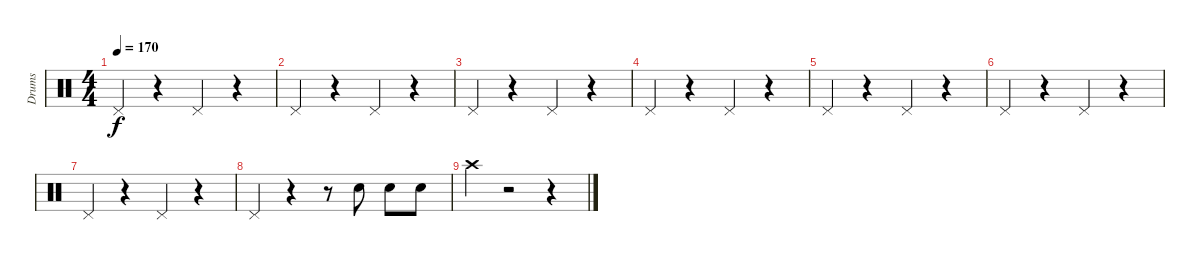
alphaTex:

\track ("Drums" "Drums") {instrument percussion}
\staff {score}
\articulation defaults
\ts (4 4)
\tempo 170
\clef neutral
\ks c "Pedal Hi-Hat (hit)".4{dy f}
r.4 "Pedal Hi-Hat (hit)".4 r.4 |
"Pedal Hi-Hat (hit)".4 r.4 "Pedal Hi-Hat (hit)".4 r.4 |
"Pedal Hi-Hat (hit)".4 r.4 "Pedal Hi-Hat (hit)".4 r.4 |
"Pedal Hi-Hat (hit)".4 r.4 "Pedal Hi-Hat (hit)".4 r.4 |
"Pedal Hi-Hat (hit)".4 r.4 "Pedal Hi-Hat (hit)".4 r.4 |
"Pedal Hi-Hat (hit)".4 r.4 "Pedal Hi-Hat (hit)".4 r.4 |
"Pedal Hi-Hat (hit)".4 r.4 "Pedal Hi-Hat (hit)".4 r.4 |
"Pedal Hi-Hat (hit)".4 r.4 r.8 "Snare (hit) 2".8 "Snare (hit) 2".8 "Snare (hit) 2".8 |
"Crash high (hit)".4 r.2 r.4
